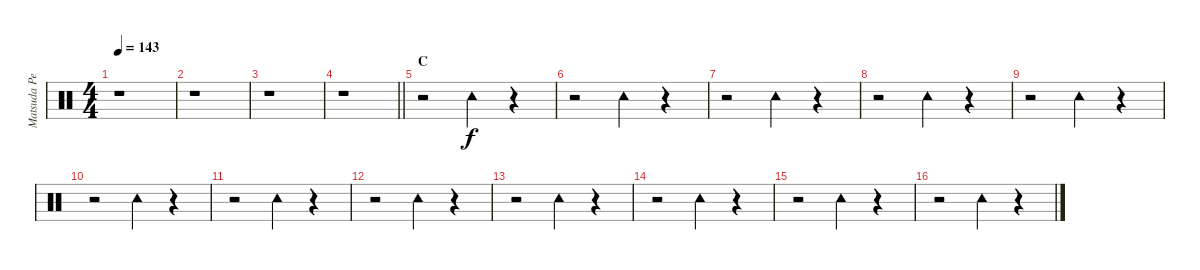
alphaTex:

\track ("Matsuda Percussion" "Matsuda Pe") {instrument percussion}
\staff {score}
\articulation defaults
\ts (4 4)
\tempo 143
\clef neutral
\ks c
r.1{dy f} |
r.1 |
r.1 |
\barLineRight lightlight
r.1 |
\section ("" "C")
r.2 "Tambourine (hit)".4 r.4 |
r.2 "Tambourine (hit)".4 r.4 |
r.2 "Tambourine (hit)".4 r.4 |
r.2 "Tambourine (hit)".4 r.4 |
r.2 "Tambourine (hit)".4 r.4 |
r.2 "Tambourine (hit)".4 r.4 |
r.2 "Tambourine (hit)".4 r.4 |
r.2 "Tambourine (hit)".4 r.4 |
r.2 "Tambourine (hit)".4 r.4 |
r.2 "Tambourine (hit)".4 r.4 |
r.2 "Tambourine (hit)".4 r.4 |
r.2 "Tambourine (hit)".4 r.4
